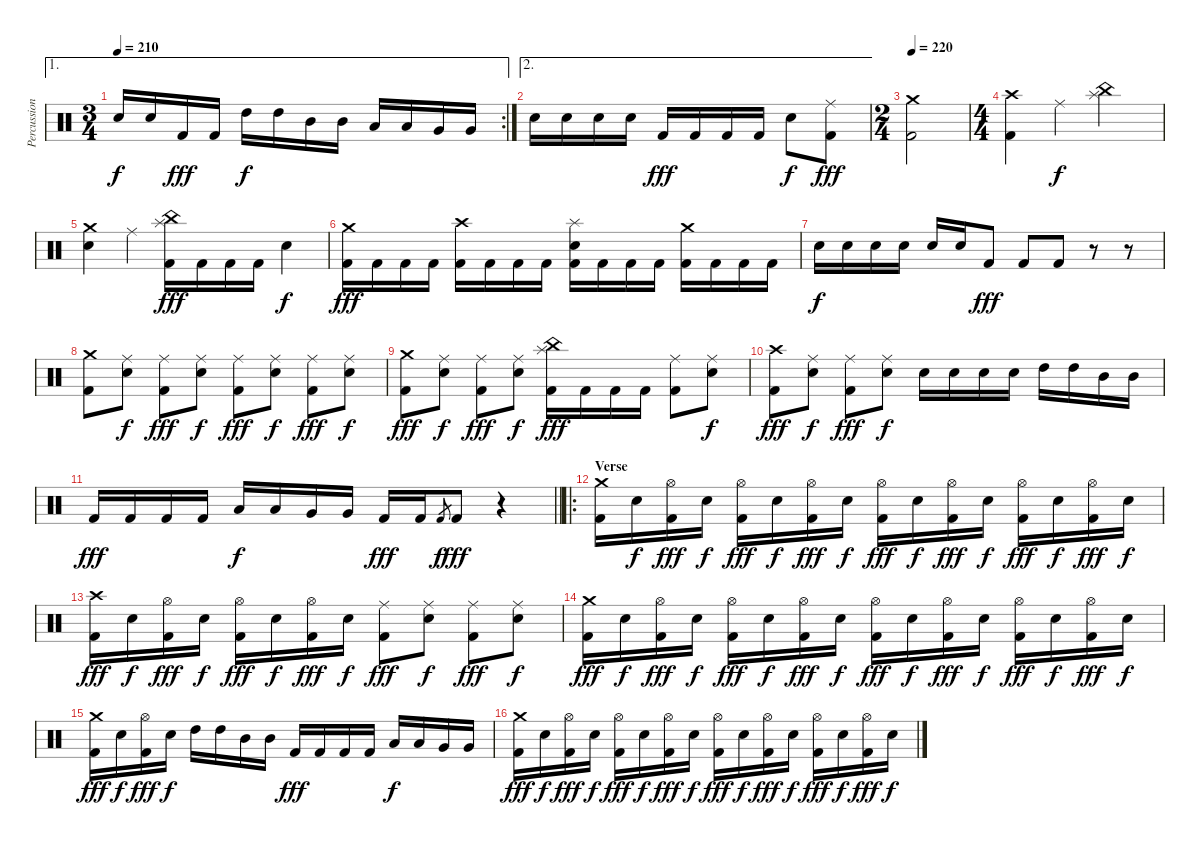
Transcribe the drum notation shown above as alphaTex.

\track ("Percussions" "Percussion") {instrument percussion}
\staff {score}
\articulation defaults
\ae 1
\rc 2
\ts (3 4)
\tempo 210
\clef neutral
\ks c "Electric Snare (hit)".16{dy f} "Electric Snare (hit)".16 "Kick (hit) 2".16{dy fff} "Kick (hit) 2".16 "High Tom (hit)".16{dy f} "High Tom (hit)".16 "Mid Tom (hit)".16 "Mid Tom (hit)".16 "Low Tom (hit)".16 "Low Tom (hit)".16 "Very Low Tom (hit)".16 "Very Low Tom (hit)".16
|
\ae 2 "Electric Snare (hit)".16 "Electric Snare (hit)".16 "Electric Snare (hit)".16 "Electric Snare (hit)".16 "Kick (hit) 2".16{dy fff} "Kick (hit) 2".16 "Kick (hit) 2".16 "Kick (hit) 2".16 "Electric Snare (hit)".8{dy f}
("Ride (middle)" "Kick (hit) 2").8{dy fff} |
\ts (2 4)
\tempo 220
("Crash medium (hit)" "Kick (hit) 2").2 |
\ts (4 4)
("Crash high (hit)" "Kick (hit) 2").4 "Ride (middle)".4{dy f} ("China (hit)" "Splash (hit)").2 |
("Crash medium (hit)" "Electric Snare (hit)").4 "Ride (middle)".4 ("China (hit)" "Splash (hit)" "Kick (hit) 2").16{dy fff} "Kick (hit) 2".16 "Kick (hit) 2".16 "Kick (hit) 2".16 "Electric Snare (hit)".4{dy f} |
("Crash medium (hit)" "Kick (hit) 2").16{dy fff} "Kick (hit) 2".16 "Kick (hit) 2".16 "Kick (hit) 2".16 ("Crash high (hit)" "Kick (hit) 2").16 "Kick (hit) 2".16 "Kick (hit) 2".16 "Kick (hit) 2".16 ("Splash (hit)" "Electric Snare (hit)" "Kick (hit) 2").16 "Kick (hit) 2".16 "Kick (hit) 2".16 "Kick (hit) 2".16 ("Crash medium (hit)" "Kick (hit) 2").16 "Kick (hit) 2".16 "Kick (hit) 2".16 "Kick (hit) 2".16 |
"Electric Snare (hit)".16{dy f} "Electric Snare (hit)".16 "Electric Snare (hit)".16 "Electric Snare (hit)".16 "Electric Snare (hit)".16 "Electric Snare (hit)".16 "Kick (hit) 2".8{dy fff} "Kick (hit) 2".8 "Kick (hit) 2".8 r.8 r.8 |
("Crash medium (hit)" "Kick (hit) 2").8 ("Ride (middle)" "Electric Snare (hit)").8{dy f} ("Ride (middle)" "Kick (hit) 2").8{dy fff} ("Ride (middle)" "Electric Snare (hit)").8{dy f} ("Ride (middle)" "Kick (hit) 2").8{dy fff} ("Ride (middle)" "Electric Snare (hit)").8{dy f} ("Ride (middle)" "Kick (hit) 2").8{dy fff} ("Ride (middle)" "Electric Snare (hit)").8{dy f} |
("Crash medium (hit)" "Kick (hit) 2").8{dy fff} ("Ride (middle)" "Electric Snare (hit)").8{dy f} ("Ride (middle)" "Kick (hit) 2").8{dy fff} ("Ride (middle)" "Electric Snare (hit)").8{dy f} ("China (hit)" "Splash (hit)" "Kick (hit) 2").16{dy fff} "Kick (hit) 2".16 "Kick (hit) 2".16 "Kick (hit) 2".16 ("Ride (middle)" "Kick (hit) 2").8 ("Ride (middle)" "Electric Snare (hit)").8{dy f} |
("Crash high (hit)" "Kick (hit) 2").8{dy fff} ("Ride (middle)" "Electric Snare (hit)").8{dy f} ("Ride (middle)" "Kick (hit) 2").8{dy fff} ("Ride (middle)" "Electric Snare (hit)").8{dy f} "Electric Snare (hit)".16 "Electric Snare (hit)".16 "Electric Snare (hit)".16 "Electric Snare (hit)".16 "High Tom (hit)".16 "High Tom (hit)".16 "Mid Tom (hit)".16 "Mid Tom (hit)".16 |
\barLineRight lightlight "Kick (hit) 2".16{dy fff} "Kick (hit) 2".16 "Kick (hit) 2".16 "Kick (hit) 2".16 "Low Tom (hit)".16{dy f} "Low Tom (hit)".16 "Very Low Tom (hit)".16 "Very Low Tom (hit)".16 "Kick (hit) 2".16{dy fff} "Kick (hit) 2".16 "Kick (hit) 2".8{gr dy f} "Kick (hit) 2".8{dy fff}
r.4 |
\ro
\section ("" "Verse")
("Crash medium (hit)" "Kick (hit) 2").16 "Electric Snare (hit)".16{dy f} ("Hi-Hat (open)" "Kick (hit) 2").16{dy fff} "Electric Snare (hit)".16{dy f} ("Hi-Hat (open)" "Kick (hit) 2").16{dy fff} "Electric Snare (hit)".16{dy f} ("Hi-Hat (open)" "Kick (hit) 2").16{dy fff} "Electric Snare (hit)".16{dy f} ("Hi-Hat (open)" "Kick (hit) 2").16{dy fff} "Electric Snare (hit)".16{dy f} ("Hi-Hat (open)" "Kick (hit) 2").16{dy fff} "Electric Snare (hit)".16{dy f} ("Hi-Hat (open)" "Kick (hit) 2").16{dy fff} "Electric Snare (hit)".16{dy f} ("Hi-Hat (open)" "Kick (hit) 2").16{dy fff} "Electric Snare (hit)".16{dy f} |
("Crash high (hit)" "Kick (hit) 2").16{dy fff} "Electric Snare (hit)".16{dy f} ("Hi-Hat (open)" "Kick (hit) 2").16{dy fff} "Electric Snare (hit)".16{dy f} ("Hi-Hat (open)" "Kick (hit) 2").16{dy fff} "Electric Snare (hit)".16{dy f} ("Hi-Hat (open)" "Kick (hit) 2").16{dy fff} "Electric Snare (hit)".16{dy f} ("Ride (middle)" "Kick (hit) 2").8{dy fff} ("Ride (middle)" "Electric Snare (hit)").8{dy f} ("Ride (middle)" "Kick (hit) 2").8{dy fff} ("Ride (middle)" "Electric Snare (hit)").8{dy f} |
("Crash medium (hit)" "Kick (hit) 2").16{dy fff} "Electric Snare (hit)".16{dy f} ("Hi-Hat (open)" "Kick (hit) 2").16{dy fff} "Electric Snare (hit)".16{dy f} ("Hi-Hat (open)" "Kick (hit) 2").16{dy fff} "Electric Snare (hit)".16{dy f} ("Hi-Hat (open)" "Kick (hit) 2").16{dy fff} "Electric Snare (hit)".16{dy f} ("Hi-Hat (open)" "Kick (hit) 2").16{dy fff} "Electric Snare (hit)".16{dy f} ("Hi-Hat (open)" "Kick (hit) 2").16{dy fff} "Electric Snare (hit)".16{dy f} ("Hi-Hat (open)" "Kick (hit) 2").16{dy fff} "Electric Snare (hit)".16{dy f} ("Hi-Hat (open)" "Kick (hit) 2").16{dy fff} "Electric Snare (hit)".16{dy f} |
("Crash medium (hit)" "Kick (hit) 2").16{dy fff} "Electric Snare (hit)".16{dy f} ("Hi-Hat (open)" "Kick (hit) 2").16{dy fff} "Electric Snare (hit)".16{dy f} "High Tom (hit)".16 "High Tom (hit)".16 "Mid Tom (hit)".16 "Mid Tom (hit)".16 "Kick (hit) 2".16{dy fff} "Kick (hit) 2".16 "Kick (hit) 2".16 "Kick (hit) 2".16 "Low Tom (hit)".16{dy f} "Low Tom (hit)".16 "Very Low Tom (hit)".16 "Very Low Tom (hit)".16 |
("Crash medium (hit)" "Kick (hit) 2").16{dy fff} "Electric Snare (hit)".16{dy f} ("Hi-Hat (open)" "Kick (hit) 2").16{dy fff} "Electric Snare (hit)".16{dy f} ("Hi-Hat (open)" "Kick (hit) 2").16{dy fff} "Electric Snare (hit)".16{dy f} ("Hi-Hat (open)" "Kick (hit) 2").16{dy fff} "Electric Snare (hit)".16{dy f} ("Hi-Hat (open)" "Kick (hit) 2").16{dy fff} "Electric Snare (hit)".16{dy f} ("Hi-Hat (open)" "Kick (hit) 2").16{dy fff} "Electric Snare (hit)".16{dy f} ("Hi-Hat (open)" "Kick (hit) 2").16{dy fff} "Electric Snare (hit)".16{dy f} ("Hi-Hat (open)" "Kick (hit) 2").16{dy fff} "Electric Snare (hit)".16{dy f}
